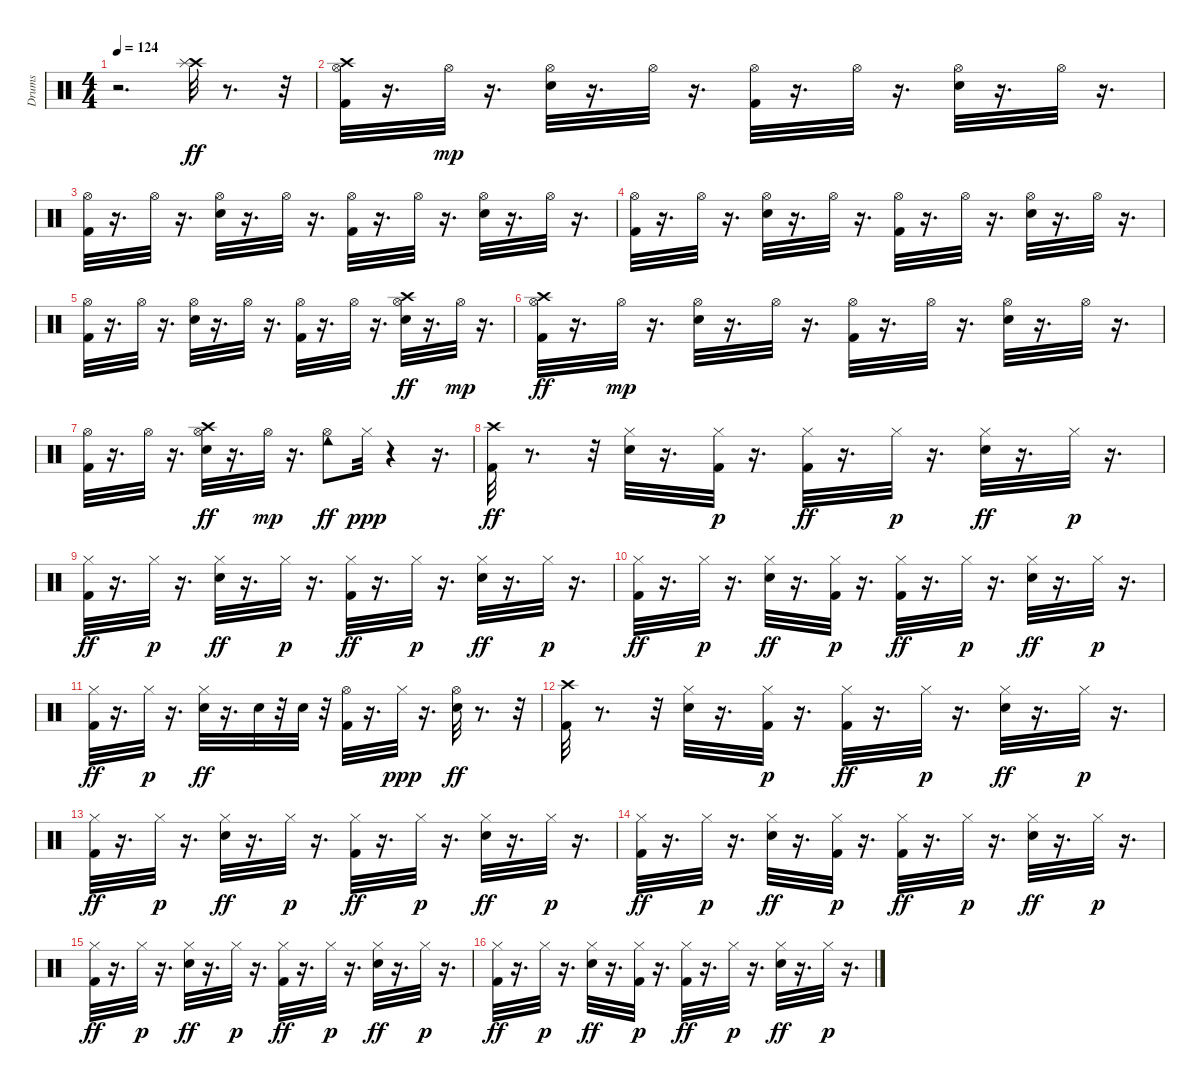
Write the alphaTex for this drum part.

\track ("Drums" "Drums") {instrument percussion}
\staff {score}
\articulation defaults
\ts (4 4)
\tempo 124
\clef neutral
\ks c
r.2{d dy ff} ("Crash high (hit)" "Splash (hit)").32{volume 12} r.8{d} r.32 |
("Kick (hit) 2" "Hi-Hat (open)" "Crash high (hit)").32 r.16{d} "Hi-Hat (open)".32{dy mp} r.16{d} ("Snare (hit) 2" "Hi-Hat (open)").32 r.16{d} "Hi-Hat (open)".32 r.16{d} ("Kick (hit) 2" "Hi-Hat (open)").32 r.16{d} "Hi-Hat (open)".32 r.16{d} ("Snare (hit) 2" "Hi-Hat (open)").32 r.16{d} "Hi-Hat (open)".32 r.16{d} |
("Kick (hit) 2" "Hi-Hat (open)").32 r.16{d} "Hi-Hat (open)".32 r.16{d} ("Snare (hit) 2" "Hi-Hat (open)").32 r.16{d} "Hi-Hat (open)".32 r.16{d} ("Kick (hit) 2" "Hi-Hat (open)").32 r.16{d} "Hi-Hat (open)".32 r.16{d} ("Snare (hit) 2" "Hi-Hat (open)").32 r.16{d} "Hi-Hat (open)".32 r.16{d} |
("Kick (hit) 2" "Hi-Hat (open)").32 r.16{d} "Hi-Hat (open)".32 r.16{d} ("Snare (hit) 2" "Hi-Hat (open)").32 r.16{d} "Hi-Hat (open)".32 r.16{d} ("Kick (hit) 2" "Hi-Hat (open)").32 r.16{d} "Hi-Hat (open)".32 r.16{d} ("Snare (hit) 2" "Hi-Hat (open)").32 r.16{d} "Hi-Hat (open)".32 r.16{d} |
("Kick (hit) 2" "Hi-Hat (open)").32 r.16{d} "Hi-Hat (open)".32 r.16{d} ("Snare (hit) 2" "Hi-Hat (open)").32 r.16{d} "Hi-Hat (open)".32 r.16{d} ("Kick (hit) 2" "Hi-Hat (open)").32 r.16{d} "Hi-Hat (open)".32 r.16{d} ("Snare (hit) 2" "Hi-Hat (open)" "Crash high (hit)").32{dy ff} r.16{d} "Hi-Hat (open)".32{dy mp} r.16{d} |
("Kick (hit) 2" "Hi-Hat (open)" "Crash high (hit)").32{dy ff} r.16{d} "Hi-Hat (open)".32{dy mp} r.16{d} ("Snare (hit) 2" "Hi-Hat (open)").32 r.16{d} "Hi-Hat (open)".32 r.16{d} ("Kick (hit) 2" "Hi-Hat (open)").32 r.16{d} "Hi-Hat (open)".32 r.16{d} ("Snare (hit) 2" "Hi-Hat (open)").32 r.16{d} "Hi-Hat (open)".32 r.16{d} |
("Kick (hit) 2" "Hi-Hat (open)").32 r.16{d} "Hi-Hat (open)".32 r.16{d} ("Snare (hit) 2" "Hi-Hat (open)" "Crash high (hit)").32{dy ff} r.16{d} "Hi-Hat (open)".32{dy mp} r.16{d} ("Hi-Hat (open)" "Cowbell low (hit)").8{dy ff} "Hi-Hat (closed)".32{dy ppp} r.4 r.16{d} |
("Kick (hit) 2" "Crash high (hit)").32{dy ff} r.8{d} r.32 ("Snare (hit) 2" "Hi-Hat (closed)").32 r.16{d} ("Kick (hit) 2" "Hi-Hat (closed)").32{dy p} r.16{d} ("Kick (hit) 2" "Hi-Hat (closed)").32{dy ff} r.16{d} "Hi-Hat (closed)".32{dy p} r.16{d} ("Snare (hit) 2" "Hi-Hat (closed)").32{dy ff} r.16{d} "Hi-Hat (closed)".32{dy p} r.16{d} |
("Kick (hit) 2" "Hi-Hat (closed)").32{dy ff} r.16{d} "Hi-Hat (closed)".32{dy p} r.16{d} ("Snare (hit) 2" "Hi-Hat (closed)").32{dy ff} r.16{d} "Hi-Hat (closed)".32{dy p} r.16{d} ("Kick (hit) 2" "Hi-Hat (closed)").32{dy ff} r.16{d} "Hi-Hat (closed)".32{dy p} r.16{d} ("Snare (hit) 2" "Hi-Hat (closed)").32{dy ff} r.16{d} "Hi-Hat (closed)".32{dy p} r.16{d} |
("Kick (hit) 2" "Hi-Hat (closed)").32{dy ff} r.16{d} "Hi-Hat (closed)".32{dy p} r.16{d} ("Snare (hit) 2" "Hi-Hat (closed)").32{dy ff} r.16{d} ("Kick (hit) 2" "Hi-Hat (closed)").32{dy p} r.16{d} ("Kick (hit) 2" "Hi-Hat (closed)").32{dy ff} r.16{d} "Hi-Hat (closed)".32{dy p} r.16{d} ("Snare (hit) 2" "Hi-Hat (closed)").32{dy ff} r.16{d} "Hi-Hat (closed)".32{dy p} r.16{d} |
("Kick (hit) 2" "Hi-Hat (closed)").32{dy ff} r.16{d} "Hi-Hat (closed)".32{dy p} r.16{d} ("Snare (hit) 2" "Hi-Hat (closed)").32{dy ff} r.16{d} "Snare (hit) 2".32 r.32 "Snare (hit) 2".32 r.32 ("Kick (hit) 2" "Hi-Hat (open)").32 r.16{d} "Hi-Hat (closed)".32{dy ppp} r.16{d} ("Snare (hit) 2" "Hi-Hat (open)").32{dy ff} r.8{d} r.32 |
("Kick (hit) 2" "Crash high (hit)").32 r.8{d} r.32 ("Snare (hit) 2" "Hi-Hat (closed)").32 r.16{d} ("Kick (hit) 2" "Hi-Hat (closed)").32{dy p} r.16{d} ("Kick (hit) 2" "Hi-Hat (closed)").32{dy ff} r.16{d} "Hi-Hat (closed)".32{dy p} r.16{d} ("Snare (hit) 2" "Hi-Hat (closed)").32{dy ff} r.16{d} "Hi-Hat (closed)".32{dy p} r.16{d} |
("Kick (hit) 2" "Hi-Hat (closed)").32{dy ff} r.16{d} "Hi-Hat (closed)".32{dy p} r.16{d} ("Snare (hit) 2" "Hi-Hat (closed)").32{dy ff} r.16{d} "Hi-Hat (closed)".32{dy p} r.16{d} ("Kick (hit) 2" "Hi-Hat (closed)").32{dy ff} r.16{d} "Hi-Hat (closed)".32{dy p} r.16{d} ("Snare (hit) 2" "Hi-Hat (closed)").32{dy ff} r.16{d} "Hi-Hat (closed)".32{dy p} r.16{d} |
("Kick (hit) 2" "Hi-Hat (closed)").32{dy ff} r.16{d} "Hi-Hat (closed)".32{dy p} r.16{d} ("Snare (hit) 2" "Hi-Hat (closed)").32{dy ff} r.16{d} ("Kick (hit) 2" "Hi-Hat (closed)").32{dy p} r.16{d} ("Kick (hit) 2" "Hi-Hat (closed)").32{dy ff} r.16{d} "Hi-Hat (closed)".32{dy p} r.16{d} ("Snare (hit) 2" "Hi-Hat (closed)").32{dy ff} r.16{d} "Hi-Hat (closed)".32{dy p} r.16{d} |
("Kick (hit) 2" "Hi-Hat (closed)").32{dy ff} r.16{d} "Hi-Hat (closed)".32{dy p} r.16{d} ("Snare (hit) 2" "Hi-Hat (closed)").32{dy ff} r.16{d} "Hi-Hat (closed)".32{dy p} r.16{d} ("Kick (hit) 2" "Hi-Hat (closed)").32{dy ff} r.16{d} "Hi-Hat (closed)".32{dy p} r.16{d} ("Snare (hit) 2" "Hi-Hat (closed)").32{dy ff} r.16{d} "Hi-Hat (closed)".32{dy p} r.16{d} |
("Kick (hit) 2" "Hi-Hat (closed)").32{dy ff} r.16{d} "Hi-Hat (closed)".32{dy p} r.16{d} ("Snare (hit) 2" "Hi-Hat (closed)").32{dy ff} r.16{d} ("Kick (hit) 2" "Hi-Hat (closed)").32{dy p} r.16{d} ("Kick (hit) 2" "Hi-Hat (closed)").32{dy ff} r.16{d} "Hi-Hat (closed)".32{dy p} r.16{d} ("Snare (hit) 2" "Hi-Hat (closed)").32{dy ff} r.16{d} "Hi-Hat (closed)".32{dy p} r.16{d}
